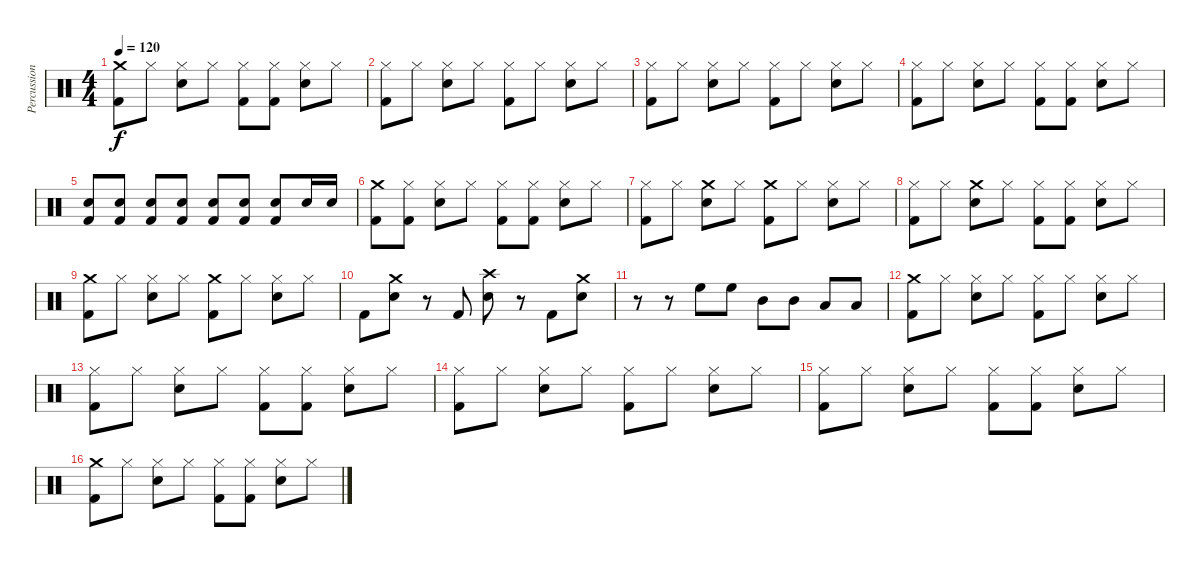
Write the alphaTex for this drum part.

\track ("Percussions" "Percussion") {instrument percussion}
\staff {score}
\articulation defaults
\ts (4 4)
\tempo 120
\clef neutral
\ks c
("Crash medium (hit)" "Kick (hit) 2").8{dy f} "Hi-Hat (closed)".8 ("Hi-Hat (closed)" "Electric Snare (hit)").8 "Hi-Hat (closed)".8 ("Hi-Hat (closed)" "Kick (hit) 2").8 ("Hi-Hat (closed)" "Kick (hit) 2").8 ("Hi-Hat (closed)" "Electric Snare (hit)").8 "Hi-Hat (closed)".8 |
("Hi-Hat (closed)" "Kick (hit) 2").8 "Hi-Hat (closed)".8 ("Hi-Hat (closed)" "Electric Snare (hit)").8 "Hi-Hat (closed)".8 ("Hi-Hat (closed)" "Kick (hit) 2").8 "Hi-Hat (closed)".8 ("Hi-Hat (closed)" "Electric Snare (hit)").8 "Hi-Hat (closed)".8 |
("Hi-Hat (closed)" "Kick (hit) 2").8 "Hi-Hat (closed)".8 ("Hi-Hat (closed)" "Electric Snare (hit)").8 "Hi-Hat (closed)".8 ("Hi-Hat (closed)" "Kick (hit) 2").8 "Hi-Hat (closed)".8 ("Hi-Hat (closed)" "Electric Snare (hit)").8 "Hi-Hat (closed)".8 |
("Hi-Hat (closed)" "Kick (hit) 2").8 "Hi-Hat (closed)".8 ("Hi-Hat (closed)" "Electric Snare (hit)").8 "Hi-Hat (closed)".8 ("Hi-Hat (closed)" "Kick (hit) 2").8 ("Hi-Hat (closed)" "Kick (hit) 2").8 ("Hi-Hat (closed)" "Electric Snare (hit)").8 "Hi-Hat (closed)".8 |
("Electric Snare (hit)" "Kick (hit) 2").8 ("Electric Snare (hit)" "Kick (hit) 2").8 ("Electric Snare (hit)" "Kick (hit) 2").8 ("Electric Snare (hit)" "Kick (hit) 2").8 ("Electric Snare (hit)" "Kick (hit) 2").8 ("Electric Snare (hit)" "Kick (hit) 2").8 ("Electric Snare (hit)" "Kick (hit) 2").8 "Electric Snare (hit)".16 "Electric Snare (hit)".16 |
("Crash medium (hit)" "Kick (hit) 2").8 ("Hi-Hat (closed)" "Kick (hit) 2").8 ("Hi-Hat (closed)" "Electric Snare (hit)").8 "Hi-Hat (closed)".8 ("Hi-Hat (closed)" "Kick (hit) 2").8 ("Hi-Hat (closed)" "Kick (hit) 2").8 ("Hi-Hat (closed)" "Electric Snare (hit)").8 "Hi-Hat (closed)".8 |
("Hi-Hat (closed)" "Kick (hit) 2").8 "Hi-Hat (closed)".8 ("Crash medium (hit)" "Electric Snare (hit)").8 "Hi-Hat (closed)".8 ("Crash medium (hit)" "Kick (hit) 2").8 "Hi-Hat (closed)".8 ("Hi-Hat (closed)" "Electric Snare (hit)").8 "Hi-Hat (closed)".8 |
("Hi-Hat (closed)" "Kick (hit) 2").8 "Hi-Hat (closed)".8 ("Crash medium (hit)" "Electric Snare (hit)").8 "Hi-Hat (closed)".8 ("Hi-Hat (closed)" "Kick (hit) 2").8 ("Hi-Hat (closed)" "Kick (hit) 2").8 ("Hi-Hat (closed)" "Electric Snare (hit)").8 "Hi-Hat (closed)".8 |
("Crash medium (hit)" "Kick (hit) 2").8 "Hi-Hat (closed)".8 ("Hi-Hat (closed)" "Electric Snare (hit)").8 "Hi-Hat (closed)".8 ("Crash medium (hit)" "Kick (hit) 2").8 "Hi-Hat (closed)".8 ("Hi-Hat (closed)" "Electric Snare (hit)").8 "Hi-Hat (closed)".8 |
"Kick (hit) 2".8 ("Crash medium (hit)" "Electric Snare (hit)").8 r.8 "Kick (hit) 2".8 ("Crash high (hit)" "Electric Snare (hit)").8 r.8 "Kick (hit) 2".8 ("Crash medium (hit)" "Electric Snare (hit)").8 |
r.8 r.8 "High Floor Tom (hit)".8 "High Floor Tom (hit)".8 "Mid Tom (hit)".8 "Mid Tom (hit)".8 "Low Tom (hit)".8 "Low Tom (hit)".8 |
("Crash medium (hit)" "Kick (hit) 2").8 "Hi-Hat (closed)".8 ("Hi-Hat (closed)" "Electric Snare (hit)").8 "Hi-Hat (closed)".8 ("Hi-Hat (closed)" "Kick (hit) 2").8 "Hi-Hat (closed)".8 ("Hi-Hat (closed)" "Electric Snare (hit)").8 "Hi-Hat (closed)".8 |
("Hi-Hat (closed)" "Kick (hit) 2").8 "Hi-Hat (closed)".8 ("Hi-Hat (closed)" "Electric Snare (hit)").8 "Hi-Hat (closed)".8 ("Hi-Hat (closed)" "Kick (hit) 2").8 ("Hi-Hat (closed)" "Kick (hit) 2").8 ("Hi-Hat (closed)" "Electric Snare (hit)").8 "Hi-Hat (closed)".8 |
("Hi-Hat (closed)" "Kick (hit) 2").8 "Hi-Hat (closed)".8 ("Hi-Hat (closed)" "Electric Snare (hit)").8 "Hi-Hat (closed)".8 ("Hi-Hat (closed)" "Kick (hit) 2").8 "Hi-Hat (closed)".8 ("Hi-Hat (closed)" "Electric Snare (hit)").8 "Hi-Hat (closed)".8 |
("Hi-Hat (closed)" "Kick (hit) 2").8 "Hi-Hat (closed)".8 ("Hi-Hat (closed)" "Electric Snare (hit)").8 "Hi-Hat (closed)".8 ("Hi-Hat (closed)" "Kick (hit) 2").8 ("Hi-Hat (closed)" "Kick (hit) 2").8 ("Hi-Hat (closed)" "Electric Snare (hit)").8 "Hi-Hat (closed)".8 |
("Crash medium (hit)" "Kick (hit) 2").8 "Hi-Hat (closed)".8 ("Hi-Hat (closed)" "Electric Snare (hit)").8 "Hi-Hat (closed)".8 ("Hi-Hat (closed)" "Kick (hit) 2").8 ("Hi-Hat (closed)" "Kick (hit) 2").8 ("Hi-Hat (closed)" "Electric Snare (hit)").8 "Hi-Hat (closed)".8
